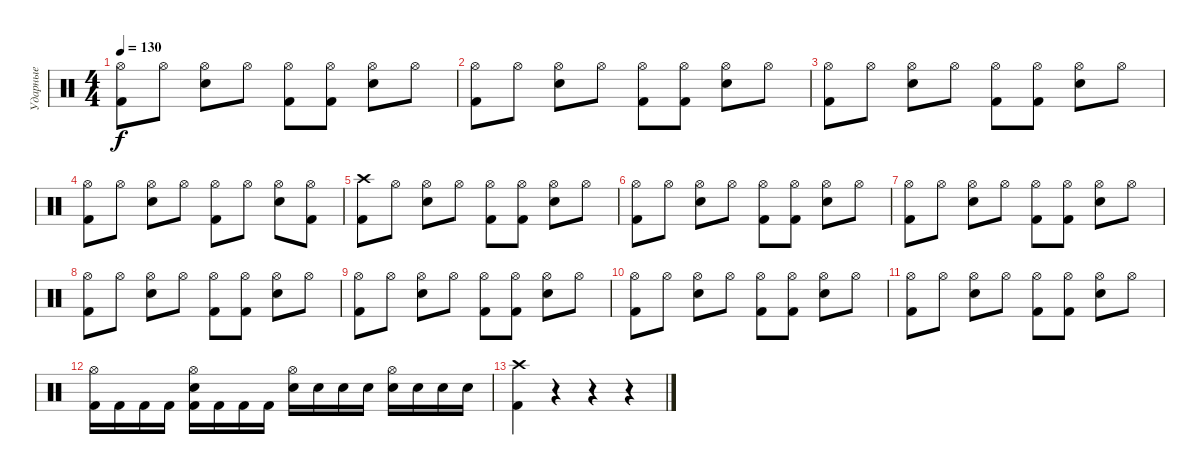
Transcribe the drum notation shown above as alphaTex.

\track ("Ударные" "Ударные") {instrument percussion}
\staff {score}
\articulation defaults
\ts (4 4)
\tempo 130
\clef neutral
\ks c
("Hi-Hat (open)" "Kick (hit) 2").8{dy f} "Hi-Hat (open)".8 ("Electric Snare (hit)" "Hi-Hat (open)").8 "Hi-Hat (open)".8 ("Hi-Hat (open)" "Kick (hit) 2").8 ("Hi-Hat (open)" "Kick (hit) 2").8 ("Hi-Hat (open)" "Electric Snare (hit)").8 "Hi-Hat (open)".8 |
("Hi-Hat (open)" "Kick (hit) 2").8 "Hi-Hat (open)".8 ("Electric Snare (hit)" "Hi-Hat (open)").8 "Hi-Hat (open)".8 ("Hi-Hat (open)" "Kick (hit) 2").8 ("Hi-Hat (open)" "Kick (hit) 2").8 ("Hi-Hat (open)" "Electric Snare (hit)").8 "Hi-Hat (open)".8 |
("Hi-Hat (open)" "Kick (hit) 2").8 "Hi-Hat (open)".8 ("Electric Snare (hit)" "Hi-Hat (open)").8 "Hi-Hat (open)".8 ("Hi-Hat (open)" "Kick (hit) 2").8 ("Hi-Hat (open)" "Kick (hit) 2").8 ("Hi-Hat (open)" "Electric Snare (hit)").8 "Hi-Hat (open)".8 |
("Hi-Hat (open)" "Kick (hit) 2").8 "Hi-Hat (open)".8 ("Electric Snare (hit)" "Hi-Hat (open)").8 "Hi-Hat (open)".8 ("Hi-Hat (open)" "Kick (hit) 2").8 "Hi-Hat (open)".8 ("Hi-Hat (open)" "Electric Snare (hit)").8 ("Hi-Hat (open)" "Kick (hit) 2").8 |
("Crash high (hit)" "Kick (hit) 2").8 "Hi-Hat (open)".8 ("Electric Snare (hit)" "Hi-Hat (open)").8 "Hi-Hat (open)".8 ("Hi-Hat (open)" "Kick (hit) 2").8 ("Hi-Hat (open)" "Kick (hit) 2").8 ("Hi-Hat (open)" "Electric Snare (hit)").8 "Hi-Hat (open)".8 |
("Hi-Hat (open)" "Kick (hit) 2").8 "Hi-Hat (open)".8 ("Electric Snare (hit)" "Hi-Hat (open)").8 "Hi-Hat (open)".8 ("Hi-Hat (open)" "Kick (hit) 2").8 ("Hi-Hat (open)" "Kick (hit) 2").8 ("Hi-Hat (open)" "Electric Snare (hit)").8 "Hi-Hat (open)".8 |
("Hi-Hat (open)" "Kick (hit) 2").8 "Hi-Hat (open)".8 ("Electric Snare (hit)" "Hi-Hat (open)").8 "Hi-Hat (open)".8 ("Hi-Hat (open)" "Kick (hit) 2").8 ("Hi-Hat (open)" "Kick (hit) 2").8 ("Hi-Hat (open)" "Electric Snare (hit)").8 "Hi-Hat (open)".8 |
("Hi-Hat (open)" "Kick (hit) 2").8 "Hi-Hat (open)".8 ("Electric Snare (hit)" "Hi-Hat (open)").8 "Hi-Hat (open)".8 ("Hi-Hat (open)" "Kick (hit) 2").8 ("Hi-Hat (open)" "Kick (hit) 2").8 ("Hi-Hat (open)" "Electric Snare (hit)").8 "Hi-Hat (open)".8 |
("Hi-Hat (open)" "Kick (hit) 2").8 "Hi-Hat (open)".8 ("Electric Snare (hit)" "Hi-Hat (open)").8 "Hi-Hat (open)".8 ("Hi-Hat (open)" "Kick (hit) 2").8 ("Hi-Hat (open)" "Kick (hit) 2").8 ("Hi-Hat (open)" "Electric Snare (hit)").8 "Hi-Hat (open)".8 |
("Hi-Hat (open)" "Kick (hit) 2").8 "Hi-Hat (open)".8 ("Electric Snare (hit)" "Hi-Hat (open)").8 "Hi-Hat (open)".8 ("Hi-Hat (open)" "Kick (hit) 2").8 ("Hi-Hat (open)" "Kick (hit) 2").8 ("Hi-Hat (open)" "Electric Snare (hit)").8 "Hi-Hat (open)".8 |
("Hi-Hat (open)" "Kick (hit) 2").8 "Hi-Hat (open)".8 ("Electric Snare (hit)" "Hi-Hat (open)").8 "Hi-Hat (open)".8 ("Hi-Hat (open)" "Kick (hit) 2").8 ("Hi-Hat (open)" "Kick (hit) 2").8 ("Hi-Hat (open)" "Electric Snare (hit)").8 "Hi-Hat (open)".8 |
("Kick (hit) 2" "Hi-Hat (open)").16 "Kick (hit) 2".16 "Kick (hit) 2".16 "Kick (hit) 2".16 ("Kick (hit) 2" "Hi-Hat (open)" "Electric Snare (hit)").16 "Kick (hit) 2".16 "Kick (hit) 2".16 "Kick (hit) 2".16 ("Electric Snare (hit)" "Hi-Hat (open)").16 "Electric Snare (hit)".16 "Electric Snare (hit)".16 "Electric Snare (hit)".16 ("Electric Snare (hit)" "Hi-Hat (open)").16 "Electric Snare (hit)".16 "Electric Snare (hit)".16 "Electric Snare (hit)".16 |
("Crash high (hit)" "Kick (hit) 2").4 r.4 r.4 r.4
